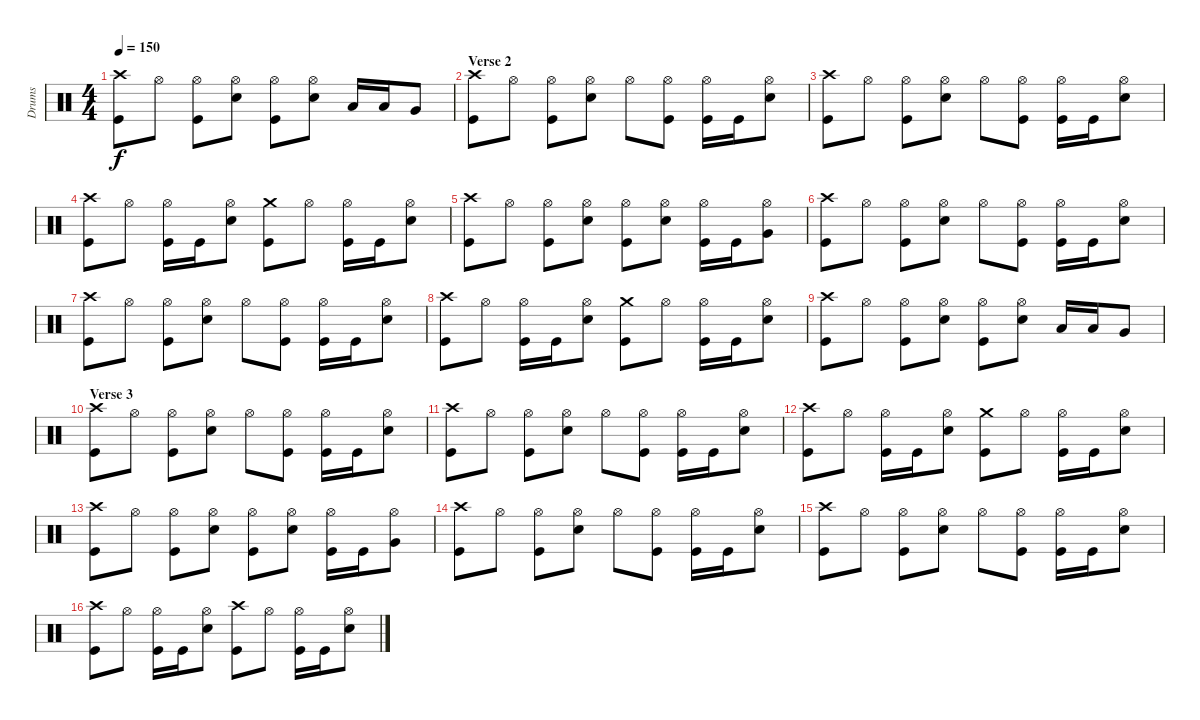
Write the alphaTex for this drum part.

\track ("Drums" "Drums") {instrument percussion}
\staff {score}
\articulation defaults
\ts (4 4)
\tempo 150
\clef neutral
\ks c
("Crash high (hit)" "Kick (hit)").8{dy f} "Hi-Hat (open)".8 ("Hi-Hat (open)" "Kick (hit)").8 ("Hi-Hat (open)" "Electric Snare (hit)").8 ("Hi-Hat (open)" "Kick (hit)").8 ("Hi-Hat (open)" "Electric Snare (hit)").8 "Low Tom (hit)".16 "Low Tom (hit)".16 "Very Low Tom (hit)".8 |
\section ("" "Verse 2")
("Crash high (hit)" "Kick (hit)").8 "Hi-Hat (open)".8 ("Hi-Hat (open)" "Kick (hit)").8 ("Hi-Hat (open)" "Electric Snare (hit)").8 "Hi-Hat (open)".8 ("Hi-Hat (open)" "Kick (hit)").8 ("Hi-Hat (open)" "Kick (hit)").16 "Kick (hit)".16 ("Hi-Hat (open)" "Electric Snare (hit)").8 |
("Crash high (hit)" "Kick (hit)").8 "Hi-Hat (open)".8 ("Hi-Hat (open)" "Kick (hit)").8 ("Hi-Hat (open)" "Electric Snare (hit)").8 "Hi-Hat (open)".8 ("Hi-Hat (open)" "Kick (hit)").8 ("Hi-Hat (open)" "Kick (hit)").16 "Kick (hit)".16 ("Hi-Hat (open)" "Electric Snare (hit)").8 |
("Crash high (hit)" "Kick (hit)").8 "Hi-Hat (open)".8 ("Hi-Hat (open)" "Kick (hit)").16 "Kick (hit)".16 ("Hi-Hat (open)" "Electric Snare (hit)").8 ("Crash medium (hit)" "Kick (hit)").8 "Hi-Hat (open)".8 ("Hi-Hat (open)" "Kick (hit)").16 "Kick (hit)".16 ("Hi-Hat (open)" "Electric Snare (hit)").8 |
("Crash high (hit)" "Kick (hit)").8 "Hi-Hat (open)".8 ("Hi-Hat (open)" "Kick (hit)").8 ("Hi-Hat (open)" "Electric Snare (hit)").8 ("Hi-Hat (open)" "Kick (hit)").8 ("Hi-Hat (open)" "Electric Snare (hit)").8 ("Hi-Hat (open)" "Kick (hit)").16 "Kick (hit)".16 ("Hi-Hat (open)" "Very Low Tom (hit)").8 |
("Crash high (hit)" "Kick (hit)").8 "Hi-Hat (open)".8 ("Hi-Hat (open)" "Kick (hit)").8 ("Hi-Hat (open)" "Electric Snare (hit)").8 "Hi-Hat (open)".8 ("Hi-Hat (open)" "Kick (hit)").8 ("Hi-Hat (open)" "Kick (hit)").16 "Kick (hit)".16 ("Hi-Hat (open)" "Electric Snare (hit)").8 |
("Crash high (hit)" "Kick (hit)").8 "Hi-Hat (open)".8 ("Hi-Hat (open)" "Kick (hit)").8 ("Hi-Hat (open)" "Electric Snare (hit)").8 "Hi-Hat (open)".8 ("Hi-Hat (open)" "Kick (hit)").8 ("Hi-Hat (open)" "Kick (hit)").16 "Kick (hit)".16 ("Hi-Hat (open)" "Electric Snare (hit)").8 |
("Crash high (hit)" "Kick (hit)").8 "Hi-Hat (open)".8 ("Hi-Hat (open)" "Kick (hit)").16 "Kick (hit)".16 ("Hi-Hat (open)" "Electric Snare (hit)").8 ("Crash medium (hit)" "Kick (hit)").8 "Hi-Hat (open)".8 ("Hi-Hat (open)" "Kick (hit)").16 "Kick (hit)".16 ("Hi-Hat (open)" "Electric Snare (hit)").8 |
("Crash high (hit)" "Kick (hit)").8 "Hi-Hat (open)".8 ("Hi-Hat (open)" "Kick (hit)").8 ("Hi-Hat (open)" "Electric Snare (hit)").8 ("Hi-Hat (open)" "Kick (hit)").8 ("Hi-Hat (open)" "Electric Snare (hit)").8 "Low Tom (hit)".16 "Low Tom (hit)".16 "Very Low Tom (hit)".8 |
\section ("" "Verse 3")
("Crash high (hit)" "Kick (hit)").8 "Hi-Hat (open)".8 ("Hi-Hat (open)" "Kick (hit)").8 ("Hi-Hat (open)" "Electric Snare (hit)").8 "Hi-Hat (open)".8 ("Hi-Hat (open)" "Kick (hit)").8 ("Hi-Hat (open)" "Kick (hit)").16 "Kick (hit)".16 ("Hi-Hat (open)" "Electric Snare (hit)").8 |
("Crash high (hit)" "Kick (hit)").8 "Hi-Hat (open)".8 ("Hi-Hat (open)" "Kick (hit)").8 ("Hi-Hat (open)" "Electric Snare (hit)").8 "Hi-Hat (open)".8 ("Hi-Hat (open)" "Kick (hit)").8 ("Hi-Hat (open)" "Kick (hit)").16 "Kick (hit)".16 ("Hi-Hat (open)" "Electric Snare (hit)").8 |
("Crash high (hit)" "Kick (hit)").8 "Hi-Hat (open)".8 ("Hi-Hat (open)" "Kick (hit)").16 "Kick (hit)".16 ("Hi-Hat (open)" "Electric Snare (hit)").8 ("Crash medium (hit)" "Kick (hit)").8 "Hi-Hat (open)".8 ("Hi-Hat (open)" "Kick (hit)").16 "Kick (hit)".16 ("Hi-Hat (open)" "Electric Snare (hit)").8 |
("Crash high (hit)" "Kick (hit)").8 "Hi-Hat (open)".8 ("Hi-Hat (open)" "Kick (hit)").8 ("Hi-Hat (open)" "Electric Snare (hit)").8 ("Hi-Hat (open)" "Kick (hit)").8 ("Hi-Hat (open)" "Electric Snare (hit)").8 ("Hi-Hat (open)" "Kick (hit)").16 "Kick (hit)".16 ("Hi-Hat (open)" "Very Low Tom (hit)").8 |
("Crash high (hit)" "Kick (hit)").8 "Hi-Hat (open)".8 ("Hi-Hat (open)" "Kick (hit)").8 ("Hi-Hat (open)" "Electric Snare (hit)").8 "Hi-Hat (open)".8 ("Hi-Hat (open)" "Kick (hit)").8 ("Hi-Hat (open)" "Kick (hit)").16 "Kick (hit)".16 ("Hi-Hat (open)" "Electric Snare (hit)").8 |
("Crash high (hit)" "Kick (hit)").8 "Hi-Hat (open)".8 ("Hi-Hat (open)" "Kick (hit)").8 ("Hi-Hat (open)" "Electric Snare (hit)").8 "Hi-Hat (open)".8 ("Hi-Hat (open)" "Kick (hit)").8 ("Hi-Hat (open)" "Kick (hit)").16 "Kick (hit)".16 ("Hi-Hat (open)" "Electric Snare (hit)").8 |
("Crash high (hit)" "Kick (hit)").8 "Hi-Hat (open)".8 ("Hi-Hat (open)" "Kick (hit)").16 "Kick (hit)".16 ("Hi-Hat (open)" "Electric Snare (hit)").8 ("Crash high (hit)" "Kick (hit)").8 "Hi-Hat (open)".8 ("Hi-Hat (open)" "Kick (hit)").16 "Kick (hit)".16 ("Hi-Hat (open)" "Electric Snare (hit)").8
